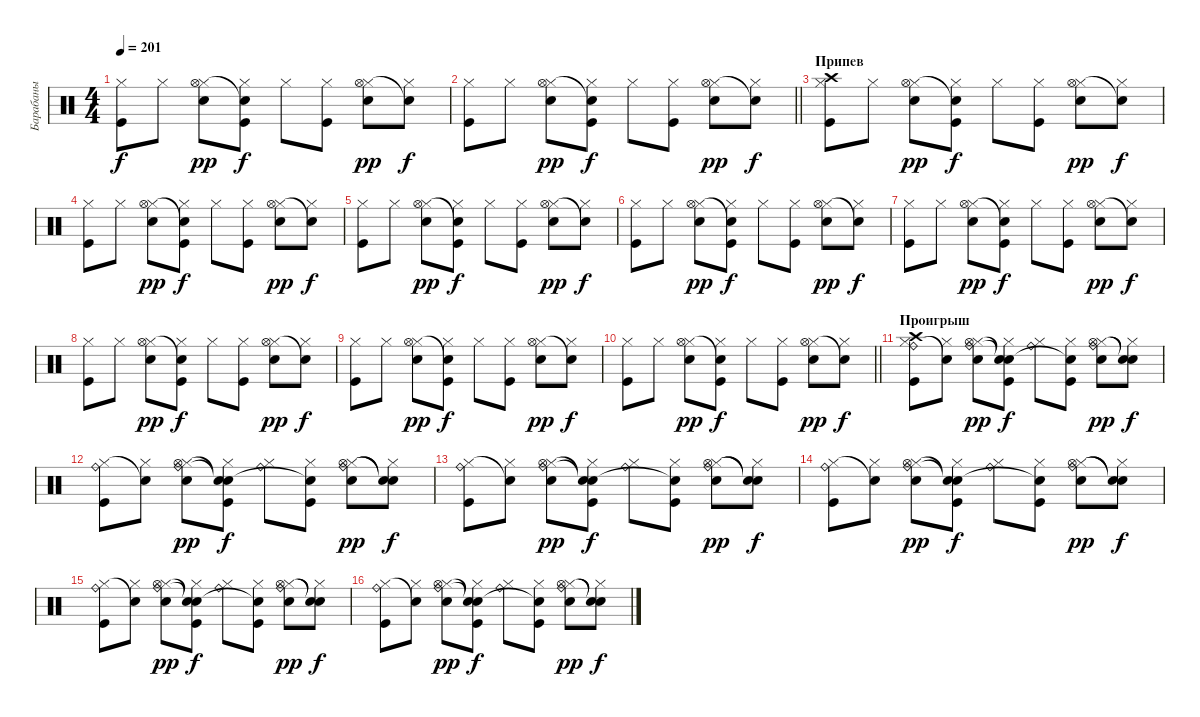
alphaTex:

\track ("Барабаны" "Барабаны") {instrument percussion}
\staff {score}
\articulation defaults
\ts (4 4)
\tempo 201
\clef neutral
\ks c
("Kick (hit)" "Hi-Hat (closed)").8{dy f} "Hi-Hat (closed)".8 ("Snare (hit) 2" "Hi-Hat (closed)" "Hi-Hat (open)").8{dy pp} ("Kick (hit)" "Hi-Hat (closed)" "Snare (hit)"{t}).8{dy f} "Hi-Hat (closed)".8 ("Kick (hit)" "Hi-Hat (closed)").8 ("Snare (hit) 2" "Hi-Hat (closed)" "Hi-Hat (open)").8{dy pp} ("Hi-Hat (closed)" "Snare (hit)"{t}).8{dy f} |
\barLineRight lightlight
("Kick (hit)" "Hi-Hat (closed)").8 "Hi-Hat (closed)".8 ("Snare (hit) 2" "Hi-Hat (closed)" "Hi-Hat (open)").8{dy pp} ("Kick (hit)" "Hi-Hat (closed)" "Snare (hit)"{t}).8{dy f} "Hi-Hat (closed)".8 ("Kick (hit)" "Hi-Hat (closed)").8 ("Snare (hit) 2" "Hi-Hat (closed)" "Hi-Hat (open)").8{dy pp} ("Hi-Hat (closed)" "Snare (hit)"{t}).8{dy f} |
\section ("" "Припев")
("Kick (hit)" "Hi-Hat (closed)" "Crash high (hit)").8 "Hi-Hat (closed)".8 ("Snare (hit) 2" "Hi-Hat (closed)" "Hi-Hat (open)").8{dy pp} ("Kick (hit)" "Hi-Hat (closed)" "Snare (hit)"{t}).8{dy f} "Hi-Hat (closed)".8 ("Kick (hit)" "Hi-Hat (closed)").8 ("Snare (hit) 2" "Hi-Hat (closed)" "Hi-Hat (open)").8{dy pp} ("Hi-Hat (closed)" "Snare (hit)"{t}).8{dy f} |
("Kick (hit)" "Hi-Hat (closed)").8 "Hi-Hat (closed)".8 ("Snare (hit) 2" "Hi-Hat (closed)" "Hi-Hat (open)").8{dy pp} ("Kick (hit)" "Hi-Hat (closed)" "Snare (hit)"{t}).8{dy f} "Hi-Hat (closed)".8 ("Kick (hit)" "Hi-Hat (closed)").8 ("Snare (hit) 2" "Hi-Hat (closed)" "Hi-Hat (open)").8{dy pp} ("Hi-Hat (closed)" "Snare (hit)"{t}).8{dy f} |
("Kick (hit)" "Hi-Hat (closed)").8 "Hi-Hat (closed)".8 ("Snare (hit) 2" "Hi-Hat (closed)" "Hi-Hat (open)").8{dy pp} ("Kick (hit)" "Hi-Hat (closed)" "Snare (hit)"{t}).8{dy f} "Hi-Hat (closed)".8 ("Kick (hit)" "Hi-Hat (closed)").8 ("Snare (hit) 2" "Hi-Hat (closed)" "Hi-Hat (open)").8{dy pp} ("Hi-Hat (closed)" "Snare (hit)"{t}).8{dy f} |
("Kick (hit)" "Hi-Hat (closed)").8 "Hi-Hat (closed)".8 ("Snare (hit) 2" "Hi-Hat (closed)" "Hi-Hat (open)").8{dy pp} ("Kick (hit)" "Hi-Hat (closed)" "Snare (hit)"{t}).8{dy f} "Hi-Hat (closed)".8 ("Kick (hit)" "Hi-Hat (closed)").8 ("Snare (hit) 2" "Hi-Hat (closed)" "Hi-Hat (open)").8{dy pp} ("Hi-Hat (closed)" "Snare (hit)"{t}).8{dy f} |
("Kick (hit)" "Hi-Hat (closed)").8 "Hi-Hat (closed)".8 ("Snare (hit) 2" "Hi-Hat (closed)" "Hi-Hat (open)").8{dy pp} ("Kick (hit)" "Hi-Hat (closed)" "Snare (hit)"{t}).8{dy f} "Hi-Hat (closed)".8 ("Kick (hit)" "Hi-Hat (closed)").8 ("Snare (hit) 2" "Hi-Hat (closed)" "Hi-Hat (open)").8{dy pp} ("Hi-Hat (closed)" "Snare (hit)"{t}).8{dy f} |
("Kick (hit)" "Hi-Hat (closed)").8 "Hi-Hat (closed)".8 ("Snare (hit) 2" "Hi-Hat (closed)" "Hi-Hat (open)").8{dy pp} ("Kick (hit)" "Hi-Hat (closed)" "Snare (hit)"{t}).8{dy f} "Hi-Hat (closed)".8 ("Kick (hit)" "Hi-Hat (closed)").8 ("Snare (hit) 2" "Hi-Hat (closed)" "Hi-Hat (open)").8{dy pp} ("Hi-Hat (closed)" "Snare (hit)"{t}).8{dy f} |
("Kick (hit)" "Hi-Hat (closed)").8 "Hi-Hat (closed)".8 ("Snare (hit) 2" "Hi-Hat (closed)" "Hi-Hat (open)").8{dy pp} ("Kick (hit)" "Hi-Hat (closed)" "Snare (hit)"{t}).8{dy f} "Hi-Hat (closed)".8 ("Kick (hit)" "Hi-Hat (closed)").8 ("Snare (hit) 2" "Hi-Hat (closed)" "Hi-Hat (open)").8{dy pp} ("Hi-Hat (closed)" "Snare (hit)"{t}).8{dy f} |
\barLineRight lightlight
("Kick (hit)" "Hi-Hat (closed)").8 "Hi-Hat (closed)".8 ("Snare (hit) 2" "Hi-Hat (closed)" "Hi-Hat (open)").8{dy pp} ("Kick (hit)" "Hi-Hat (closed)" "Snare (hit)"{t}).8{dy f} "Hi-Hat (closed)".8 ("Kick (hit)" "Hi-Hat (closed)").8 ("Snare (hit) 2" "Hi-Hat (closed)" "Hi-Hat (open)").8{dy pp} ("Hi-Hat (closed)" "Snare (hit)"{t}).8{dy f} |
\section ("" "Проигрыш")
("Kick (hit)" "Hi-Hat (closed)" "Crash high (hit)" "Ride (bell)").8 ("Hi-Hat (closed)" "Snare (hit)"{t}).8 ("Snare (hit) 2" "Hi-Hat (closed)" "Hi-Hat (open)" "Ride (bell)").8{dy pp} ("Kick (hit)" "Hi-Hat (closed)" "Snare (hit)"{t} "Snare (hit)"{t}).8{dy f} ("Hi-Hat (closed)" "Ride (bell)").8 ("Kick (hit)" "Hi-Hat (closed)" "Snare (hit)"{t}).8 ("Snare (hit) 2" "Hi-Hat (closed)" "Hi-Hat (open)" "Ride (bell)").8{dy pp} ("Hi-Hat (closed)" "Snare (hit)"{t} "Snare (hit)"{t}).8{dy f} |
("Kick (hit)" "Hi-Hat (closed)" "Ride (bell)").8 ("Hi-Hat (closed)" "Snare (hit)"{t}).8 ("Snare (hit) 2" "Hi-Hat (closed)" "Hi-Hat (open)" "Ride (bell)").8{dy pp} ("Kick (hit)" "Hi-Hat (closed)" "Snare (hit)"{t} "Snare (hit)"{t}).8{dy f} ("Hi-Hat (closed)" "Ride (bell)").8 ("Kick (hit)" "Hi-Hat (closed)" "Snare (hit)"{t}).8 ("Snare (hit) 2" "Hi-Hat (closed)" "Hi-Hat (open)" "Ride (bell)").8{dy pp} ("Hi-Hat (closed)" "Snare (hit)"{t} "Snare (hit)"{t}).8{dy f} |
("Kick (hit)" "Hi-Hat (closed)" "Ride (bell)").8 ("Hi-Hat (closed)" "Snare (hit)"{t}).8 ("Snare (hit) 2" "Hi-Hat (closed)" "Hi-Hat (open)" "Ride (bell)").8{dy pp} ("Kick (hit)" "Hi-Hat (closed)" "Snare (hit)"{t} "Snare (hit)"{t}).8{dy f} ("Hi-Hat (closed)" "Ride (bell)").8 ("Kick (hit)" "Hi-Hat (closed)" "Snare (hit)"{t}).8 ("Snare (hit) 2" "Hi-Hat (closed)" "Hi-Hat (open)" "Ride (bell)").8{dy pp} ("Hi-Hat (closed)" "Snare (hit)"{t} "Snare (hit)"{t}).8{dy f} |
("Kick (hit)" "Hi-Hat (closed)" "Ride (bell)").8 ("Hi-Hat (closed)" "Snare (hit)"{t}).8 ("Snare (hit) 2" "Hi-Hat (closed)" "Hi-Hat (open)" "Ride (bell)").8{dy pp} ("Kick (hit)" "Hi-Hat (closed)" "Snare (hit)"{t} "Snare (hit)"{t}).8{dy f} ("Hi-Hat (closed)" "Ride (bell)").8 ("Kick (hit)" "Hi-Hat (closed)" "Snare (hit)"{t}).8 ("Snare (hit) 2" "Hi-Hat (closed)" "Hi-Hat (open)" "Ride (bell)").8{dy pp} ("Hi-Hat (closed)" "Snare (hit)"{t} "Snare (hit)"{t}).8{dy f} |
("Kick (hit)" "Hi-Hat (closed)" "Ride (bell)").8 ("Hi-Hat (closed)" "Snare (hit)"{t}).8 ("Snare (hit) 2" "Hi-Hat (closed)" "Hi-Hat (open)" "Ride (bell)").8{dy pp} ("Kick (hit)" "Hi-Hat (closed)" "Snare (hit)"{t} "Snare (hit)"{t}).8{dy f} ("Hi-Hat (closed)" "Ride (bell)").8 ("Kick (hit)" "Hi-Hat (closed)" "Snare (hit)"{t}).8 ("Snare (hit) 2" "Hi-Hat (closed)" "Hi-Hat (open)" "Ride (bell)").8{dy pp} ("Hi-Hat (closed)" "Snare (hit)"{t} "Snare (hit)"{t}).8{dy f} |
("Kick (hit)" "Hi-Hat (closed)" "Ride (bell)").8 ("Hi-Hat (closed)" "Snare (hit)"{t}).8 ("Snare (hit) 2" "Hi-Hat (closed)" "Hi-Hat (open)" "Ride (bell)").8{dy pp} ("Kick (hit)" "Hi-Hat (closed)" "Snare (hit)"{t} "Snare (hit)"{t}).8{dy f} ("Hi-Hat (closed)" "Ride (bell)").8 ("Kick (hit)" "Hi-Hat (closed)" "Snare (hit)"{t}).8 ("Snare (hit) 2" "Hi-Hat (closed)" "Hi-Hat (open)" "Ride (bell)").8{dy pp} ("Hi-Hat (closed)" "Snare (hit)"{t} "Snare (hit)"{t}).8{dy f}
